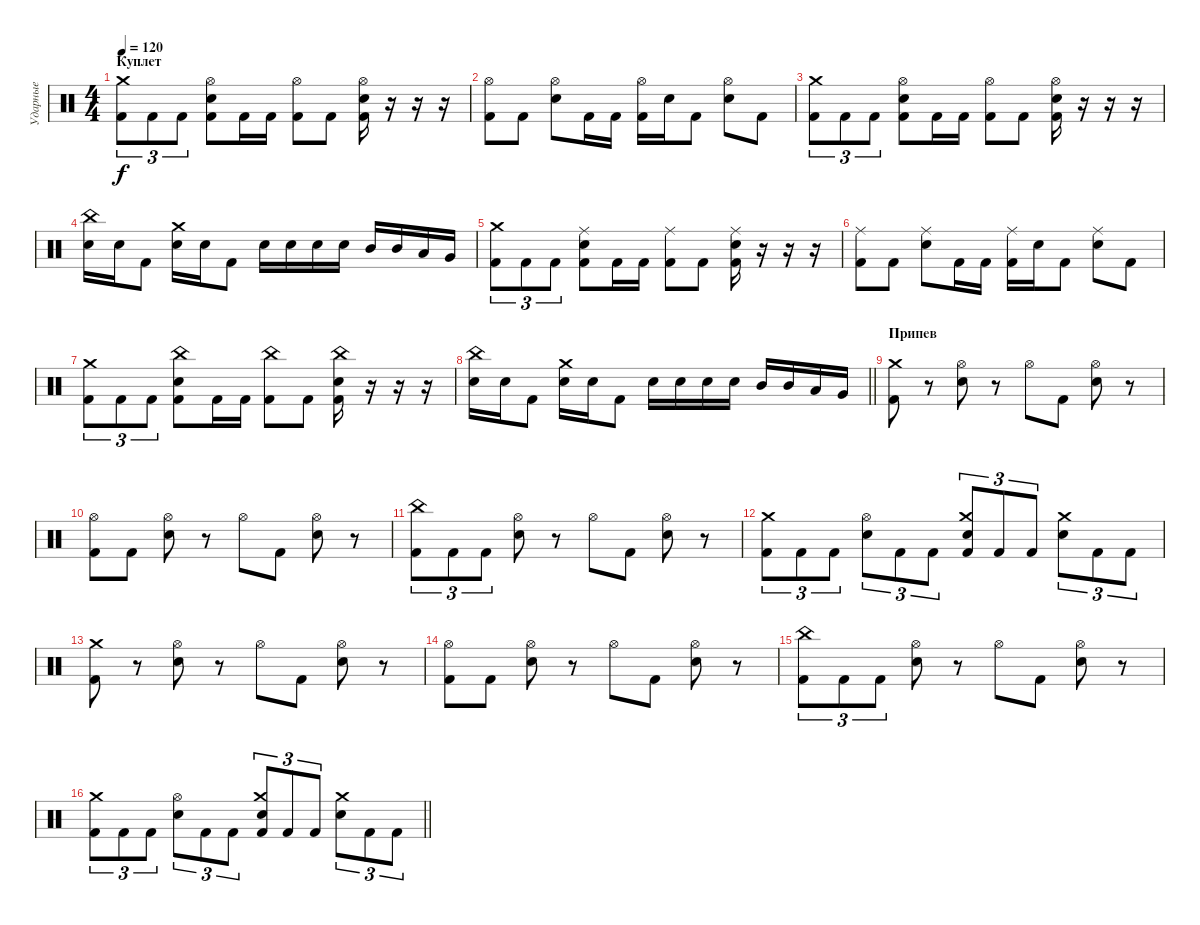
\track ("Ударные" "Ударные") {instrument percussion}
\staff {score}
\articulation defaults
\ts (4 4)
\section ("" "Куплет")
\tempo 120
\clef neutral
\ks c
("Kick (hit) 2" "Crash medium (hit)").8{tu (3 2) dy f} "Kick (hit) 2".8{tu (3 2)} "Kick (hit) 2".8{tu (3 2)} ("Kick (hit) 2" "Electric Snare (hit)" "Hi-Hat (open)").8 "Kick (hit) 2".16 "Kick (hit) 2".16 ("Kick (hit) 2" "Hi-Hat (open)").8 "Kick (hit) 2".8 ("Electric Snare (hit)" "Kick (hit) 2" "Hi-Hat (open)").16 r.16 r.16 r.16 |
("Kick (hit) 2" "Hi-Hat (open)").8 "Kick (hit) 2".8 ("Electric Snare (hit)" "Hi-Hat (open)").8 "Kick (hit) 2".16 "Kick (hit) 2".16 ("Kick (hit) 2" "Hi-Hat (open)").16 "Electric Snare (hit)".16 "Kick (hit) 2".8 ("Electric Snare (hit)" "Hi-Hat (open)").8 "Kick (hit) 2".8 |
("Kick (hit) 2" "Crash medium (hit)").8{tu (3 2)} "Kick (hit) 2".8{tu (3 2)} "Kick (hit) 2".8{tu (3 2)} ("Kick (hit) 2" "Electric Snare (hit)" "Hi-Hat (open)").8 "Kick (hit) 2".16 "Kick (hit) 2".16 ("Kick (hit) 2" "Hi-Hat (open)").8 "Kick (hit) 2".8 ("Electric Snare (hit)" "Kick (hit) 2" "Hi-Hat (open)").16 r.16 r.16 r.16 |
("Electric Snare (hit)" "China (hit)").16 "Electric Snare (hit)".16 "Kick (hit) 2".8 ("Electric Snare (hit)" "Crash medium (hit)").16 "Electric Snare (hit)".16 "Kick (hit) 2".8 "Electric Snare (hit)".16 "Electric Snare (hit)".16 "Electric Snare (hit)".16 "Electric Snare (hit)".16 "Mid Tom (hit)".16 "Mid Tom (hit)".16 "Low Tom (hit)".16 "Very Low Tom (hit)".16 |
("Kick (hit) 2" "Crash medium (hit)").8{tu (3 2)} "Kick (hit) 2".8{tu (3 2)} "Kick (hit) 2".8{tu (3 2)} ("Kick (hit) 2" "Electric Snare (hit)" "Ride (middle)").8 "Kick (hit) 2".16 "Kick (hit) 2".16 ("Kick (hit) 2" "Ride (middle)").8 "Kick (hit) 2".8 ("Electric Snare (hit)" "Kick (hit) 2" "Ride (middle)").16 r.16 r.16 r.16 |
("Kick (hit) 2" "Ride (middle)").8 "Kick (hit) 2".8 ("Electric Snare (hit)" "Ride (middle)").8 "Kick (hit) 2".16 "Kick (hit) 2".16 ("Kick (hit) 2" "Ride (middle)").16 "Electric Snare (hit)".16 "Kick (hit) 2".8 ("Electric Snare (hit)" "Ride (middle)").8 "Kick (hit) 2".8 |
("Kick (hit) 2" "Crash medium (hit)").8{tu (3 2)} "Kick (hit) 2".8{tu (3 2)} "Kick (hit) 2".8{tu (3 2)} ("Kick (hit) 2" "Electric Snare (hit)" "China (hit)").8 "Kick (hit) 2".16 "Kick (hit) 2".16 ("Kick (hit) 2" "China (hit)").8 "Kick (hit) 2".8 ("Electric Snare (hit)" "Kick (hit) 2" "China (hit)").16 r.16 r.16 r.16 |
\barLineRight lightlight
("Electric Snare (hit)" "China (hit)").16 "Electric Snare (hit)".16 "Kick (hit) 2".8 ("Electric Snare (hit)" "Crash medium (hit)").16 "Electric Snare (hit)".16 "Kick (hit) 2".8 "Electric Snare (hit)".16 "Electric Snare (hit)".16 "Electric Snare (hit)".16 "Electric Snare (hit)".16 "Mid Tom (hit)".16 "Mid Tom (hit)".16 "Low Tom (hit)".16 "Very Low Tom (hit)".16 |
\section ("" "Припев")
("Kick (hit) 2" "Crash medium (hit)").8 r.8 ("Electric Snare (hit)" "Hi-Hat (open)").8 r.8 "Hi-Hat (open)".8 "Kick (hit) 2".8 ("Electric Snare (hit)" "Hi-Hat (open)").8 r.8 |
("Kick (hit) 2" "Hi-Hat (open)").8 "Kick (hit) 2".8 ("Electric Snare (hit)" "Hi-Hat (open)").8 r.8 "Hi-Hat (open)".8 "Kick (hit) 2".8 ("Electric Snare (hit)" "Hi-Hat (open)").8 r.8 |
("Kick (hit) 2" "China (hit)").8{tu (3 2)} "Kick (hit) 2".8{tu (3 2)} "Kick (hit) 2".8{tu (3 2)} ("Electric Snare (hit)" "Hi-Hat (open)").8 r.8 "Hi-Hat (open)".8 "Kick (hit) 2".8 ("Electric Snare (hit)" "Hi-Hat (open)").8 r.8 |
("Kick (hit) 2" "Crash medium (hit)").8{tu (3 2)} "Kick (hit) 2".8{tu (3 2)} "Kick (hit) 2".8{tu (3 2)} ("Electric Snare (hit)" "Hi-Hat (open)").8{tu (3 2)} "Kick (hit) 2".8{tu (3 2)} "Kick (hit) 2".8{tu (3 2)} ("Kick (hit) 2" "Electric Snare (hit)" "Crash medium (hit)").8{tu (3 2)} "Kick (hit) 2".8{tu (3 2)} "Kick (hit) 2".8{tu (3 2)} ("Electric Snare (hit)" "Crash medium (hit)").8{tu (3 2)} "Kick (hit) 2".8{tu (3 2)} "Kick (hit) 2".8{tu (3 2)} |
("Kick (hit) 2" "Crash medium (hit)").8 r.8 ("Electric Snare (hit)" "Hi-Hat (open)").8 r.8 "Hi-Hat (open)".8 "Kick (hit) 2".8 ("Electric Snare (hit)" "Hi-Hat (open)").8 r.8 |
("Kick (hit) 2" "Hi-Hat (open)").8 "Kick (hit) 2".8 ("Electric Snare (hit)" "Hi-Hat (open)").8 r.8 "Hi-Hat (open)".8 "Kick (hit) 2".8 ("Electric Snare (hit)" "Hi-Hat (open)").8 r.8 |
("Kick (hit) 2" "China (hit)").8{tu (3 2)} "Kick (hit) 2".8{tu (3 2)} "Kick (hit) 2".8{tu (3 2)} ("Electric Snare (hit)" "Hi-Hat (open)").8 r.8 "Hi-Hat (open)".8 "Kick (hit) 2".8 ("Electric Snare (hit)" "Hi-Hat (open)").8 r.8 |
\barLineRight lightlight
("Kick (hit) 2" "Crash medium (hit)").8{tu (3 2)} "Kick (hit) 2".8{tu (3 2)} "Kick (hit) 2".8{tu (3 2)} ("Electric Snare (hit)" "Hi-Hat (open)").8{tu (3 2)} "Kick (hit) 2".8{tu (3 2)} "Kick (hit) 2".8{tu (3 2)} ("Kick (hit) 2" "Electric Snare (hit)" "Crash medium (hit)").8{tu (3 2)} "Kick (hit) 2".8{tu (3 2)} "Kick (hit) 2".8{tu (3 2)} ("Electric Snare (hit)" "Crash medium (hit)").8{tu (3 2)} "Kick (hit) 2".8{tu (3 2)} "Kick (hit) 2".8{tu (3 2)}
